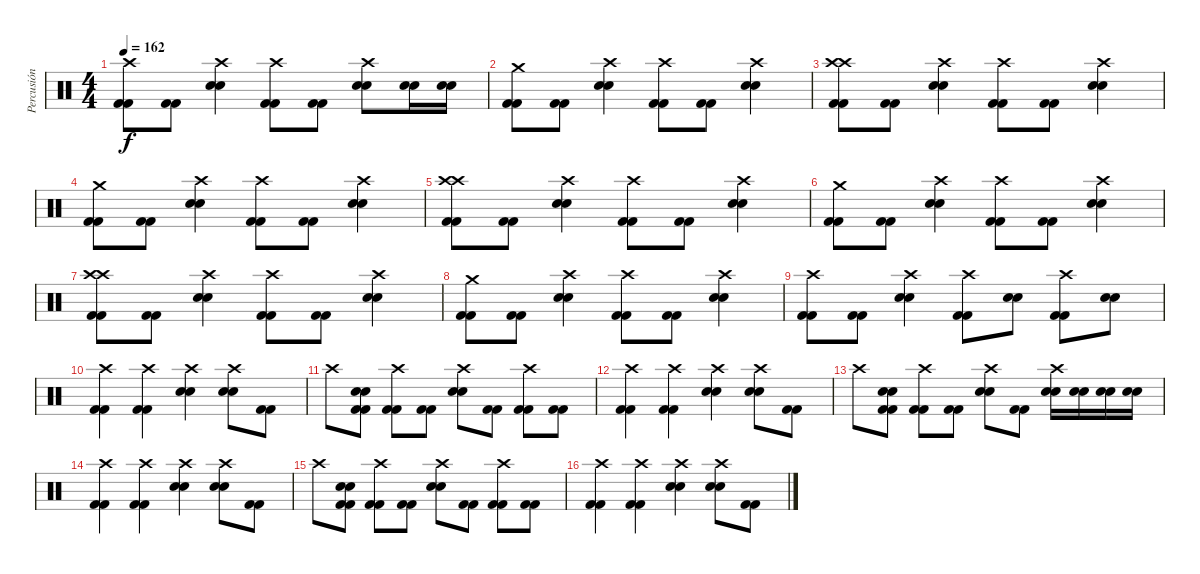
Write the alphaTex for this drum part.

\track ("Percusión" "Percusión") {instrument percussion}
\staff {score}
\articulation defaults
\ts (4 4)
\tempo 162
\clef neutral
\ks c
("Crash high (hit)" "Kick (hit) 2" "Kick (hit) 2").8{dy f} ("Kick (hit) 2" "Kick (hit) 2").8 ("Crash high (hit)" "Electric Snare (hit)" "Electric Snare (hit)").4 ("Crash high (hit)" "Kick (hit) 2" "Kick (hit) 2").8 ("Kick (hit) 2" "Kick (hit) 2").8 ("Crash high (hit)" "Electric Snare (hit)" "Electric Snare (hit)").8 ("Electric Snare (hit)" "Electric Snare (hit)").16 ("Electric Snare (hit)" "Electric Snare (hit)").16 |
("Crash medium (hit)" "Kick (hit) 2" "Kick (hit) 2").8 ("Kick (hit) 2" "Kick (hit) 2").8 ("Crash high (hit)" "Electric Snare (hit)" "Electric Snare (hit)").4 ("Crash high (hit)" "Kick (hit) 2" "Kick (hit) 2").8 ("Kick (hit) 2" "Kick (hit) 2").8 ("Crash high (hit)" "Electric Snare (hit)" "Electric Snare (hit)").4 |
("Crash high (hit)" "Crash high (hit)" "Kick (hit) 2" "Kick (hit) 2").8 ("Kick (hit) 2" "Kick (hit) 2").8 ("Crash high (hit)" "Electric Snare (hit)" "Electric Snare (hit)").4 ("Crash high (hit)" "Kick (hit) 2" "Kick (hit) 2").8 ("Kick (hit) 2" "Kick (hit) 2").8 ("Crash high (hit)" "Electric Snare (hit)" "Electric Snare (hit)").4 |
("Crash medium (hit)" "Kick (hit) 2" "Kick (hit) 2").8 ("Kick (hit) 2" "Kick (hit) 2").8 ("Crash high (hit)" "Electric Snare (hit)" "Electric Snare (hit)").4 ("Crash high (hit)" "Kick (hit) 2" "Kick (hit) 2").8 ("Kick (hit) 2" "Kick (hit) 2").8 ("Crash high (hit)" "Electric Snare (hit)" "Electric Snare (hit)").4 |
("Crash high (hit)" "Crash high (hit)" "Kick (hit) 2" "Kick (hit) 2").8 ("Kick (hit) 2" "Kick (hit) 2").8 ("Crash high (hit)" "Electric Snare (hit)" "Electric Snare (hit)").4 ("Crash high (hit)" "Kick (hit) 2" "Kick (hit) 2").8 ("Kick (hit) 2" "Kick (hit) 2").8 ("Crash high (hit)" "Electric Snare (hit)" "Electric Snare (hit)").4 |
("Crash medium (hit)" "Kick (hit) 2" "Kick (hit) 2").8 ("Kick (hit) 2" "Kick (hit) 2").8 ("Crash high (hit)" "Electric Snare (hit)" "Electric Snare (hit)").4 ("Crash high (hit)" "Kick (hit) 2" "Kick (hit) 2").8 ("Kick (hit) 2" "Kick (hit) 2").8 ("Crash high (hit)" "Electric Snare (hit)" "Electric Snare (hit)").4 |
("Crash high (hit)" "Crash high (hit)" "Kick (hit) 2" "Kick (hit) 2").8 ("Kick (hit) 2" "Kick (hit) 2").8 ("Crash high (hit)" "Electric Snare (hit)" "Electric Snare (hit)").4 ("Crash high (hit)" "Kick (hit) 2" "Kick (hit) 2").8 ("Kick (hit) 2" "Kick (hit) 2").8 ("Crash high (hit)" "Electric Snare (hit)" "Electric Snare (hit)").4 |
("Crash medium (hit)" "Kick (hit) 2" "Kick (hit) 2").8 ("Kick (hit) 2" "Kick (hit) 2").8 ("Crash high (hit)" "Electric Snare (hit)" "Electric Snare (hit)").4 ("Crash high (hit)" "Kick (hit) 2" "Kick (hit) 2").8 ("Kick (hit) 2" "Kick (hit) 2").8 ("Crash high (hit)" "Electric Snare (hit)" "Electric Snare (hit)").4 |
("Crash high (hit)" "Kick (hit) 2" "Kick (hit) 2").8 ("Kick (hit) 2" "Kick (hit) 2").8 ("Crash high (hit)" "Electric Snare (hit)" "Electric Snare (hit)").4 ("Crash high (hit)" "Kick (hit) 2" "Kick (hit) 2").8 ("Electric Snare (hit)" "Electric Snare (hit)").8 ("Crash high (hit)" "Kick (hit) 2" "Kick (hit) 2").8 ("Electric Snare (hit)" "Electric Snare (hit)").8 |
("Crash high (hit)" "Kick (hit) 2" "Kick (hit) 2").4 ("Crash high (hit)" "Kick (hit) 2" "Kick (hit) 2").4 ("Crash high (hit)" "Electric Snare (hit)" "Electric Snare (hit)").4 ("Crash high (hit)" "Electric Snare (hit)" "Electric Snare (hit)").8 ("Kick (hit) 2" "Kick (hit) 2").8 |
"Crash high (hit)".8 ("Electric Snare (hit)" "Electric Snare (hit)" "Kick (hit) 2" "Kick (hit) 2").8 ("Crash high (hit)" "Kick (hit) 2" "Kick (hit) 2").8 ("Kick (hit) 2" "Kick (hit) 2").8 ("Crash high (hit)" "Electric Snare (hit)" "Electric Snare (hit)").8 ("Kick (hit) 2" "Kick (hit) 2").8 ("Crash high (hit)" "Kick (hit) 2" "Kick (hit) 2").8 ("Kick (hit) 2" "Kick (hit) 2").8 |
("Crash high (hit)" "Kick (hit) 2" "Kick (hit) 2").4 ("Crash high (hit)" "Kick (hit) 2" "Kick (hit) 2").4 ("Crash high (hit)" "Electric Snare (hit)" "Electric Snare (hit)").4 ("Crash high (hit)" "Electric Snare (hit)" "Electric Snare (hit)").8 ("Kick (hit) 2" "Kick (hit) 2").8 |
"Crash high (hit)".8 ("Electric Snare (hit)" "Electric Snare (hit)" "Kick (hit) 2" "Kick (hit) 2").8 ("Crash high (hit)" "Kick (hit) 2" "Kick (hit) 2").8 ("Kick (hit) 2" "Kick (hit) 2").8 ("Crash high (hit)" "Electric Snare (hit)" "Electric Snare (hit)").8 ("Kick (hit) 2" "Kick (hit) 2").8 ("Crash high (hit)" "Electric Snare (hit)" "Electric Snare (hit)").16 ("Electric Snare (hit)" "Electric Snare (hit)").16 ("Electric Snare (hit)" "Electric Snare (hit)").16 ("Electric Snare (hit)" "Electric Snare (hit)").16 |
("Crash high (hit)" "Kick (hit) 2" "Kick (hit) 2").4 ("Crash high (hit)" "Kick (hit) 2" "Kick (hit) 2").4 ("Crash high (hit)" "Electric Snare (hit)" "Electric Snare (hit)").4 ("Crash high (hit)" "Electric Snare (hit)" "Electric Snare (hit)").8 ("Kick (hit) 2" "Kick (hit) 2").8 |
"Crash high (hit)".8 ("Electric Snare (hit)" "Electric Snare (hit)" "Kick (hit) 2" "Kick (hit) 2").8 ("Crash high (hit)" "Kick (hit) 2" "Kick (hit) 2").8 ("Kick (hit) 2" "Kick (hit) 2").8 ("Crash high (hit)" "Electric Snare (hit)" "Electric Snare (hit)").8 ("Kick (hit) 2" "Kick (hit) 2").8 ("Crash high (hit)" "Kick (hit) 2" "Kick (hit) 2").8 ("Kick (hit) 2" "Kick (hit) 2").8 |
("Crash high (hit)" "Kick (hit) 2" "Kick (hit) 2").4 ("Crash high (hit)" "Kick (hit) 2" "Kick (hit) 2").4 ("Crash high (hit)" "Electric Snare (hit)" "Electric Snare (hit)").4 ("Crash high (hit)" "Electric Snare (hit)" "Electric Snare (hit)").8 ("Kick (hit) 2" "Kick (hit) 2").8
